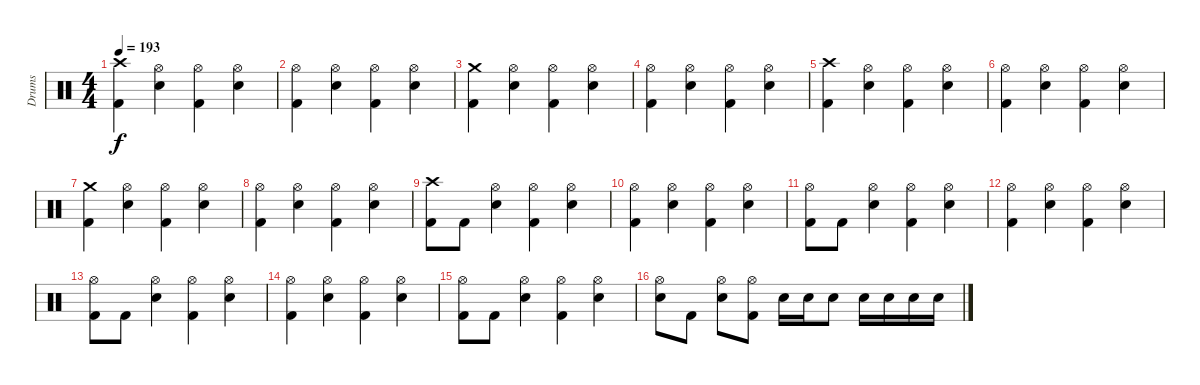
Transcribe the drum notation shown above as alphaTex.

\track ("Drums" "Drums") {instrument percussion}
\staff {score}
\articulation defaults
\ts (4 4)
\tempo 193
\clef neutral
\ks c
("Crash high (hit)" "Kick (hit) 2").4{dy f} ("Hi-Hat (open)" "Electric Snare (hit)").4 ("Hi-Hat (open)" "Kick (hit) 2").4 ("Hi-Hat (open)" "Electric Snare (hit)").4 |
("Hi-Hat (open)" "Kick (hit) 2").4 ("Hi-Hat (open)" "Electric Snare (hit)").4 ("Hi-Hat (open)" "Kick (hit) 2").4 ("Hi-Hat (open)" "Electric Snare (hit)").4 |
("Crash medium (hit)" "Kick (hit) 2").4 ("Hi-Hat (open)" "Electric Snare (hit)").4 ("Hi-Hat (open)" "Kick (hit) 2").4 ("Hi-Hat (open)" "Electric Snare (hit)").4 |
("Hi-Hat (open)" "Kick (hit) 2").4 ("Hi-Hat (open)" "Electric Snare (hit)").4 ("Hi-Hat (open)" "Kick (hit) 2").4 ("Hi-Hat (open)" "Electric Snare (hit)").4 |
("Crash high (hit)" "Kick (hit) 2").4 ("Hi-Hat (open)" "Electric Snare (hit)").4 ("Hi-Hat (open)" "Kick (hit) 2").4 ("Hi-Hat (open)" "Electric Snare (hit)").4 |
("Hi-Hat (open)" "Kick (hit) 2").4 ("Hi-Hat (open)" "Electric Snare (hit)").4 ("Hi-Hat (open)" "Kick (hit) 2").4 ("Hi-Hat (open)" "Electric Snare (hit)").4 |
("Crash medium (hit)" "Kick (hit) 2").4 ("Hi-Hat (open)" "Electric Snare (hit)").4 ("Hi-Hat (open)" "Kick (hit) 2").4 ("Hi-Hat (open)" "Electric Snare (hit)").4 |
("Hi-Hat (open)" "Kick (hit) 2").4 ("Hi-Hat (open)" "Electric Snare (hit)").4 ("Hi-Hat (open)" "Kick (hit) 2").4 ("Hi-Hat (open)" "Electric Snare (hit)").4 |
("Crash high (hit)" "Kick (hit) 2").8 "Kick (hit) 2".8 ("Hi-Hat (open)" "Electric Snare (hit)").4 ("Hi-Hat (open)" "Kick (hit) 2").4 ("Hi-Hat (open)" "Electric Snare (hit)").4 |
("Hi-Hat (open)" "Kick (hit) 2").4 ("Hi-Hat (open)" "Electric Snare (hit)").4 ("Hi-Hat (open)" "Kick (hit) 2").4 ("Hi-Hat (open)" "Electric Snare (hit)").4 |
("Hi-Hat (open)" "Kick (hit) 2").8 "Kick (hit) 2".8 ("Hi-Hat (open)" "Electric Snare (hit)").4 ("Hi-Hat (open)" "Kick (hit) 2").4 ("Hi-Hat (open)" "Electric Snare (hit)").4 |
("Hi-Hat (open)" "Kick (hit) 2").4 ("Hi-Hat (open)" "Electric Snare (hit)").4 ("Hi-Hat (open)" "Kick (hit) 2").4 ("Hi-Hat (open)" "Electric Snare (hit)").4 |
("Hi-Hat (open)" "Kick (hit) 2").8 "Kick (hit) 2".8 ("Hi-Hat (open)" "Electric Snare (hit)").4 ("Hi-Hat (open)" "Kick (hit) 2").4 ("Hi-Hat (open)" "Electric Snare (hit)").4 |
("Hi-Hat (open)" "Kick (hit) 2").4 ("Hi-Hat (open)" "Electric Snare (hit)").4 ("Hi-Hat (open)" "Kick (hit) 2").4 ("Hi-Hat (open)" "Electric Snare (hit)").4 |
("Hi-Hat (open)" "Kick (hit) 2").8 "Kick (hit) 2".8 ("Hi-Hat (open)" "Electric Snare (hit)").4 ("Hi-Hat (open)" "Kick (hit) 2").4 ("Hi-Hat (open)" "Electric Snare (hit)").4 |
("Hi-Hat (open)" "Electric Snare (hit)").8 "Kick (hit) 2".8 ("Hi-Hat (open)" "Electric Snare (hit)").8 ("Hi-Hat (open)" "Kick (hit) 2").8 "Electric Snare (hit)".16 "Electric Snare (hit)".16 "Electric Snare (hit)".8 "Electric Snare (hit)".16 "Electric Snare (hit)".16 "Electric Snare (hit)".16 "Electric Snare (hit)".16
